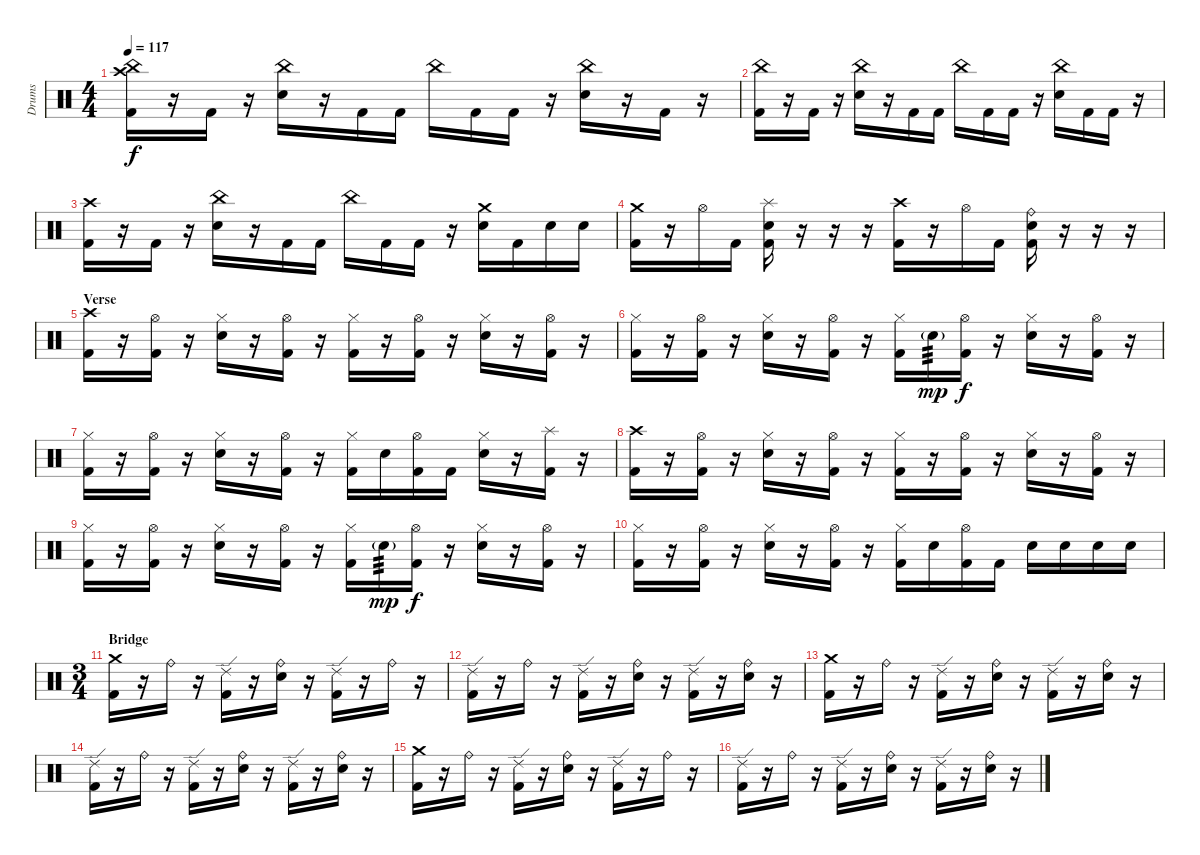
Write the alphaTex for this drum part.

\track ("Drums" "Drums") {instrument percussion}
\staff {score}
\articulation defaults
\ts (4 4)
\tempo 117
\clef neutral
\ks c
("China (hit)" "Crash high (hit)" "Kick (hit) 2").16{dy f} r.16 "Kick (hit) 2".16 r.16 ("China (hit)" "Electric Snare (hit)").16 r.16 "Kick (hit) 2".16 "Kick (hit) 2".16 "China (hit)".16 "Kick (hit) 2".16 "Kick (hit) 2".16 r.16 ("China (hit)" "Electric Snare (hit)").16 r.16 "Kick (hit) 2".16 r.16 |
("China (hit)" "Kick (hit) 2").16 r.16 "Kick (hit) 2".16 r.16 ("China (hit)" "Electric Snare (hit)").16 r.16 "Kick (hit) 2".16 "Kick (hit) 2".16 "China (hit)".16 "Kick (hit) 2".16 "Kick (hit) 2".16 r.16 ("China (hit)" "Electric Snare (hit)").16 "Kick (hit) 2".16 "Kick (hit) 2".16 r.16 |
("Crash high (hit)" "Kick (hit) 2").16 r.16 "Kick (hit) 2".16 r.16 ("China (hit)" "Electric Snare (hit)").16 r.16 "Kick (hit) 2".16 "Kick (hit) 2".16 "China (hit)".16 "Kick (hit) 2".16 "Kick (hit) 2".16 r.16 ("Crash medium (hit)" "Electric Snare (hit)").16 "Kick (hit) 2".16 "Electric Snare (hit)".16 "Electric Snare (hit)".16 |
("Crash medium (hit)" "Kick (hit) 2").16 r.16 "Hi-Hat (open)".16 "Kick (hit) 2".16 ("Splash (hit)" "Electric Snare (hit)" "Kick (hit) 2").16 r.16 r.16 r.16 ("Crash high (hit)" "Kick (hit) 2").16 r.16 "Hi-Hat (open)".16 "Kick (hit) 2".16 ("Ride (bell)" "Electric Snare (hit)" "Kick (hit) 2").16 r.16 r.16 r.16 |
\section ("" "Verse")
("Crash high (hit)" "Kick (hit) 2").16 r.16 ("Hi-Hat (open)" "Kick (hit) 2").16 r.16 ("Hi-Hat (closed)" "Electric Snare (hit)").16 r.16 ("Hi-Hat (open)" "Kick (hit) 2").16 r.16 ("Hi-Hat (closed)" "Kick (hit) 2").16 r.16 ("Hi-Hat (open)" "Kick (hit) 2").16 r.16 ("Hi-Hat (closed)" "Electric Snare (hit)").16 r.16 ("Hi-Hat (open)" "Kick (hit) 2").16 r.16 |
("Hi-Hat (closed)" "Kick (hit) 2").16 r.16 ("Hi-Hat (open)" "Kick (hit) 2").16 r.16 ("Hi-Hat (closed)" "Electric Snare (hit)").16 r.16 ("Hi-Hat (open)" "Kick (hit) 2").16 r.16 ("Hi-Hat (closed)" "Kick (hit) 2").16 "Electric Snare (hit)"{g}.16{tp 3 dy mp} ("Hi-Hat (open)" "Kick (hit) 2").16{dy f} r.16 ("Hi-Hat (closed)" "Electric Snare (hit)").16 r.16 ("Hi-Hat (open)" "Kick (hit) 2").16 r.16 |
("Hi-Hat (closed)" "Kick (hit) 2").16 r.16 ("Hi-Hat (open)" "Kick (hit) 2").16 r.16 ("Hi-Hat (closed)" "Electric Snare (hit)").16 r.16 ("Hi-Hat (open)" "Kick (hit) 2").16 r.16 ("Hi-Hat (closed)" "Kick (hit) 2").16 "Electric Snare (hit)".16 ("Hi-Hat (open)" "Kick (hit) 2").16 "Kick (hit) 2".16 ("Hi-Hat (closed)" "Electric Snare (hit)").16 r.16 ("Splash (hit)" "Kick (hit) 2").16 r.16 |
("Crash high (hit)" "Kick (hit) 2").16 r.16 ("Hi-Hat (open)" "Kick (hit) 2").16 r.16 ("Hi-Hat (closed)" "Electric Snare (hit)").16 r.16 ("Hi-Hat (open)" "Kick (hit) 2").16 r.16 ("Hi-Hat (closed)" "Kick (hit) 2").16 r.16 ("Hi-Hat (open)" "Kick (hit) 2").16 r.16 ("Hi-Hat (closed)" "Electric Snare (hit)").16 r.16 ("Hi-Hat (open)" "Kick (hit) 2").16 r.16 |
("Hi-Hat (closed)" "Kick (hit) 2").16 r.16 ("Hi-Hat (open)" "Kick (hit) 2").16 r.16 ("Hi-Hat (closed)" "Electric Snare (hit)").16 r.16 ("Hi-Hat (open)" "Kick (hit) 2").16 r.16 ("Hi-Hat (closed)" "Kick (hit) 2").16 "Electric Snare (hit)"{g}.16{tp 3 dy mp} ("Hi-Hat (open)" "Kick (hit) 2").16{dy f} r.16 ("Hi-Hat (closed)" "Electric Snare (hit)").16 r.16 ("Hi-Hat (open)" "Kick (hit) 2").16 r.16 |
("Hi-Hat (closed)" "Kick (hit) 2").16 r.16 ("Hi-Hat (open)" "Kick (hit) 2").16 r.16 ("Hi-Hat (closed)" "Electric Snare (hit)").16 r.16 ("Hi-Hat (open)" "Kick (hit) 2").16 r.16 ("Hi-Hat (closed)" "Kick (hit) 2").16 "Electric Snare (hit)".16 ("Hi-Hat (open)" "Kick (hit) 2").16 "Kick (hit) 2".16 "Electric Snare (hit)".16 "Electric Snare (hit)".16 "Electric Snare (hit)".16 "Electric Snare (hit)".16 |
\ts (3 4)
\section ("" "Bridge")
("Crash medium (hit)" "Kick (hit) 2").16 r.16 "Ride (bell)".16 r.16 ("Ride (edge) 2" "Kick (hit) 2").16 r.16 ("Ride (bell)" "Electric Snare (hit)").16 r.16 ("Ride (edge) 2" "Kick (hit) 2").16 r.16 "Ride (bell)".16 r.16 |
("Ride (edge) 2" "Kick (hit) 2").16 r.16 "Ride (bell)".16 r.16 ("Ride (edge) 2" "Kick (hit) 2").16 r.16 ("Ride (bell)" "Electric Snare (hit)").16 r.16 ("Ride (edge) 2" "Kick (hit) 2").16 r.16 ("Ride (bell)" "Electric Snare (hit)").16 r.16 |
("Crash medium (hit)" "Kick (hit) 2").16 r.16 "Ride (bell)".16 r.16 ("Ride (edge) 2" "Kick (hit) 2").16 r.16 ("Ride (bell)" "Electric Snare (hit)").16 r.16 ("Ride (edge) 2" "Kick (hit) 2").16 r.16 ("Ride (bell)" "Electric Snare (hit)").16 r.16 |
("Ride (edge) 2" "Kick (hit) 2").16 r.16 "Ride (bell)".16 r.16 ("Ride (edge) 2" "Kick (hit) 2").16 r.16 ("Ride (bell)" "Electric Snare (hit)").16 r.16 ("Ride (edge) 2" "Kick (hit) 2").16 r.16 ("Ride (bell)" "Electric Snare (hit)").16 r.16 |
("Crash medium (hit)" "Kick (hit) 2").16 r.16 "Ride (bell)".16 r.16 ("Ride (edge) 2" "Kick (hit) 2").16 r.16 ("Ride (bell)" "Electric Snare (hit)").16 r.16 ("Ride (edge) 2" "Kick (hit) 2").16 r.16 "Ride (bell)".16 r.16 |
("Ride (edge) 2" "Kick (hit) 2").16 r.16 "Ride (bell)".16 r.16 ("Ride (edge) 2" "Kick (hit) 2").16 r.16 ("Ride (bell)" "Electric Snare (hit)").16 r.16 ("Ride (edge) 2" "Kick (hit) 2").16 r.16 ("Ride (bell)" "Electric Snare (hit)").16 r.16
